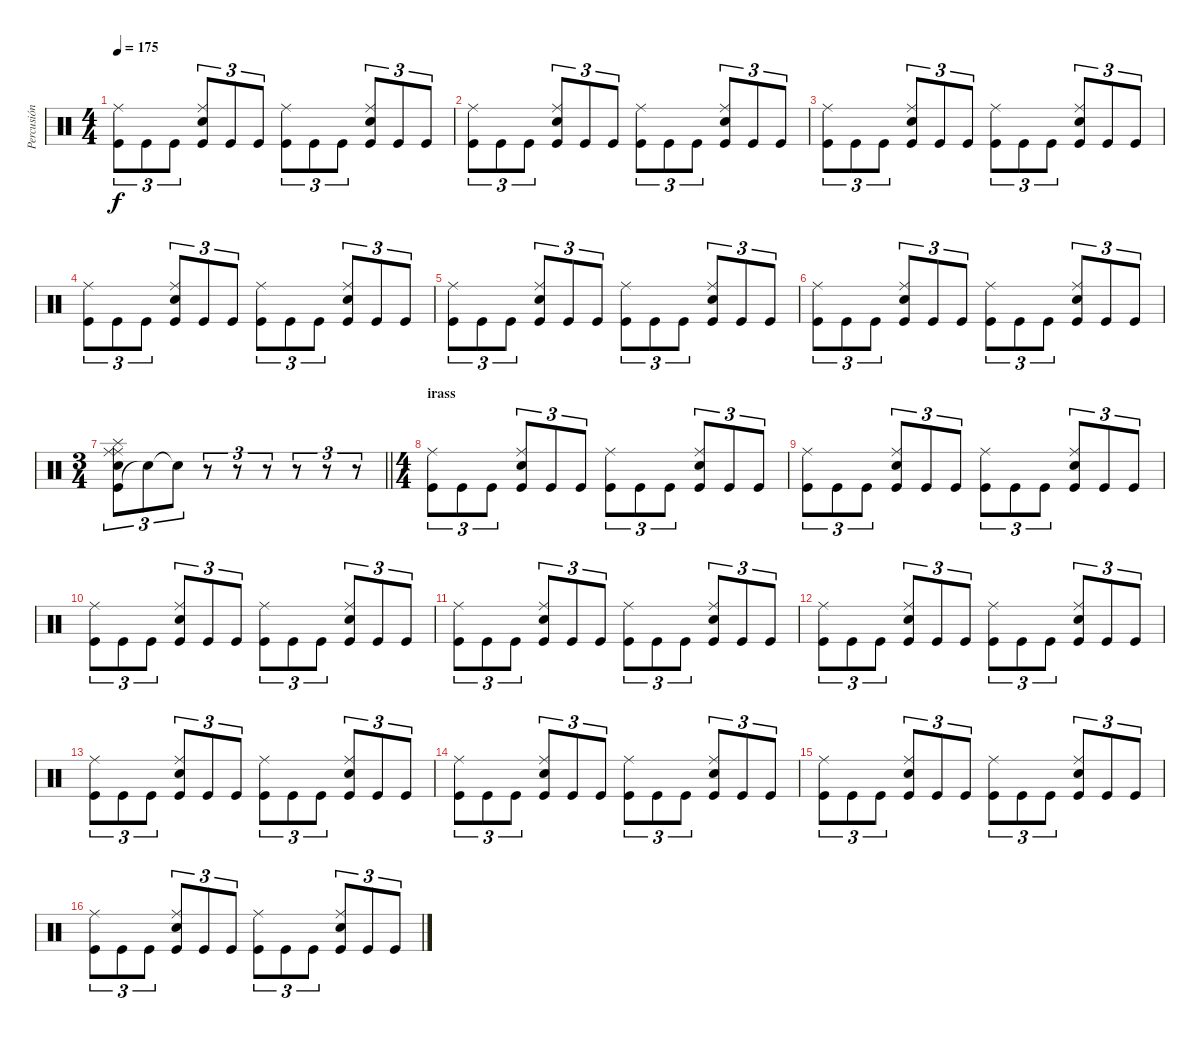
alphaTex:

\track ("Percusión" "Percusión") {instrument percussion}
\staff {score}
\articulation defaults
\ts (4 4)
\tempo 175
\clef neutral
\ks c
("Kick (hit)" "Ride (middle)").8{tu (3 2) dy f} "Kick (hit)".8{tu (3 2)} "Kick (hit)".8{tu (3 2)} ("Kick (hit)" "Electric Snare (hit)" "Ride (middle)").8{tu (3 2)} "Kick (hit)".8{tu (3 2)} "Kick (hit)".8{tu (3 2)} ("Kick (hit)" "Ride (middle)").8{tu (3 2)} "Kick (hit)".8{tu (3 2)} "Kick (hit)".8{tu (3 2)} ("Kick (hit)" "Electric Snare (hit)" "Ride (middle)").8{tu (3 2)} "Kick (hit)".8{tu (3 2)} "Kick (hit)".8{tu (3 2)} |
("Kick (hit)" "Ride (middle)").8{tu (3 2)} "Kick (hit)".8{tu (3 2)} "Kick (hit)".8{tu (3 2)} ("Kick (hit)" "Electric Snare (hit)" "Ride (middle)").8{tu (3 2)} "Kick (hit)".8{tu (3 2)} "Kick (hit)".8{tu (3 2)} ("Kick (hit)" "Ride (middle)").8{tu (3 2)} "Kick (hit)".8{tu (3 2)} "Kick (hit)".8{tu (3 2)} ("Kick (hit)" "Electric Snare (hit)" "Ride (middle)").8{tu (3 2)} "Kick (hit)".8{tu (3 2)} "Kick (hit)".8{tu (3 2)} |
("Kick (hit)" "Ride (middle)").8{tu (3 2)} "Kick (hit)".8{tu (3 2)} "Kick (hit)".8{tu (3 2)} ("Kick (hit)" "Electric Snare (hit)" "Ride (middle)").8{tu (3 2)} "Kick (hit)".8{tu (3 2)} "Kick (hit)".8{tu (3 2)} ("Kick (hit)" "Ride (middle)").8{tu (3 2)} "Kick (hit)".8{tu (3 2)} "Kick (hit)".8{tu (3 2)} ("Kick (hit)" "Electric Snare (hit)" "Ride (middle)").8{tu (3 2)} "Kick (hit)".8{tu (3 2)} "Kick (hit)".8{tu (3 2)} |
("Kick (hit)" "Ride (middle)").8{tu (3 2)} "Kick (hit)".8{tu (3 2)} "Kick (hit)".8{tu (3 2)} ("Kick (hit)" "Electric Snare (hit)" "Ride (middle)").8{tu (3 2)} "Kick (hit)".8{tu (3 2)} "Kick (hit)".8{tu (3 2)} ("Kick (hit)" "Ride (middle)").8{tu (3 2)} "Kick (hit)".8{tu (3 2)} "Kick (hit)".8{tu (3 2)} ("Kick (hit)" "Electric Snare (hit)" "Ride (middle)").8{tu (3 2)} "Kick (hit)".8{tu (3 2)} "Kick (hit)".8{tu (3 2)} |
("Kick (hit)" "Ride (middle)").8{tu (3 2)} "Kick (hit)".8{tu (3 2)} "Kick (hit)".8{tu (3 2)} ("Kick (hit)" "Electric Snare (hit)" "Ride (middle)").8{tu (3 2)} "Kick (hit)".8{tu (3 2)} "Kick (hit)".8{tu (3 2)} ("Kick (hit)" "Ride (middle)").8{tu (3 2)} "Kick (hit)".8{tu (3 2)} "Kick (hit)".8{tu (3 2)} ("Kick (hit)" "Electric Snare (hit)" "Ride (middle)").8{tu (3 2)} "Kick (hit)".8{tu (3 2)} "Kick (hit)".8{tu (3 2)} |
("Kick (hit)" "Ride (middle)").8{tu (3 2)} "Kick (hit)".8{tu (3 2)} "Kick (hit)".8{tu (3 2)} ("Kick (hit)" "Electric Snare (hit)" "Ride (middle)").8{tu (3 2)} "Kick (hit)".8{tu (3 2)} "Kick (hit)".8{tu (3 2)} ("Kick (hit)" "Ride (middle)").8{tu (3 2)} "Kick (hit)".8{tu (3 2)} "Kick (hit)".8{tu (3 2)} ("Kick (hit)" "Electric Snare (hit)" "Ride (middle)").8{tu (3 2)} "Kick (hit)".8{tu (3 2)} "Kick (hit)".8{tu (3 2)} |
\ts (3 4)
\barLineRight lightlight
("Kick (hit)" "Electric Snare (hit)" "Splash (hit)" "Ride (middle)" "Ride (middle)").8{tu (3 2)} "Snare (hit)"{t}.8{tu (3 2)} "Snare (hit)"{t}.8{tu (3 2)} r.8{tu (3 2)} r.8{tu (3 2)} r.8{tu (3 2)} r.8{tu (3 2)} r.8{tu (3 2)} r.8{tu (3 2)} |
\ts (4 4)
\section ("" "irass")
("Kick (hit)" "Ride (middle)").8{tu (3 2)} "Kick (hit)".8{tu (3 2)} "Kick (hit)".8{tu (3 2)} ("Kick (hit)" "Electric Snare (hit)" "Ride (middle)").8{tu (3 2)} "Kick (hit)".8{tu (3 2)} "Kick (hit)".8{tu (3 2)} ("Kick (hit)" "Ride (middle)").8{tu (3 2)} "Kick (hit)".8{tu (3 2)} "Kick (hit)".8{tu (3 2)} ("Kick (hit)" "Electric Snare (hit)" "Ride (middle)").8{tu (3 2)} "Kick (hit)".8{tu (3 2)} "Kick (hit)".8{tu (3 2)} |
("Kick (hit)" "Ride (middle)").8{tu (3 2)} "Kick (hit)".8{tu (3 2)} "Kick (hit)".8{tu (3 2)} ("Kick (hit)" "Electric Snare (hit)" "Ride (middle)").8{tu (3 2)} "Kick (hit)".8{tu (3 2)} "Kick (hit)".8{tu (3 2)} ("Kick (hit)" "Ride (middle)").8{tu (3 2)} "Kick (hit)".8{tu (3 2)} "Kick (hit)".8{tu (3 2)} ("Kick (hit)" "Electric Snare (hit)" "Ride (middle)").8{tu (3 2)} "Kick (hit)".8{tu (3 2)} "Kick (hit)".8{tu (3 2)} |
("Kick (hit)" "Ride (middle)").8{tu (3 2)} "Kick (hit)".8{tu (3 2)} "Kick (hit)".8{tu (3 2)} ("Kick (hit)" "Electric Snare (hit)" "Ride (middle)").8{tu (3 2)} "Kick (hit)".8{tu (3 2)} "Kick (hit)".8{tu (3 2)} ("Kick (hit)" "Ride (middle)").8{tu (3 2)} "Kick (hit)".8{tu (3 2)} "Kick (hit)".8{tu (3 2)} ("Kick (hit)" "Electric Snare (hit)" "Ride (middle)").8{tu (3 2)} "Kick (hit)".8{tu (3 2)} "Kick (hit)".8{tu (3 2)} |
("Kick (hit)" "Ride (middle)").8{tu (3 2)} "Kick (hit)".8{tu (3 2)} "Kick (hit)".8{tu (3 2)} ("Kick (hit)" "Electric Snare (hit)" "Ride (middle)").8{tu (3 2)} "Kick (hit)".8{tu (3 2)} "Kick (hit)".8{tu (3 2)} ("Kick (hit)" "Ride (middle)").8{tu (3 2)} "Kick (hit)".8{tu (3 2)} "Kick (hit)".8{tu (3 2)} ("Kick (hit)" "Electric Snare (hit)" "Ride (middle)").8{tu (3 2)} "Kick (hit)".8{tu (3 2)} "Kick (hit)".8{tu (3 2)} |
("Kick (hit)" "Ride (middle)").8{tu (3 2)} "Kick (hit)".8{tu (3 2)} "Kick (hit)".8{tu (3 2)} ("Kick (hit)" "Electric Snare (hit)" "Ride (middle)").8{tu (3 2)} "Kick (hit)".8{tu (3 2)} "Kick (hit)".8{tu (3 2)} ("Kick (hit)" "Ride (middle)").8{tu (3 2)} "Kick (hit)".8{tu (3 2)} "Kick (hit)".8{tu (3 2)} ("Kick (hit)" "Electric Snare (hit)" "Ride (middle)").8{tu (3 2)} "Kick (hit)".8{tu (3 2)} "Kick (hit)".8{tu (3 2)} |
("Kick (hit)" "Ride (middle)").8{tu (3 2)} "Kick (hit)".8{tu (3 2)} "Kick (hit)".8{tu (3 2)} ("Kick (hit)" "Electric Snare (hit)" "Ride (middle)").8{tu (3 2)} "Kick (hit)".8{tu (3 2)} "Kick (hit)".8{tu (3 2)} ("Kick (hit)" "Ride (middle)").8{tu (3 2)} "Kick (hit)".8{tu (3 2)} "Kick (hit)".8{tu (3 2)} ("Kick (hit)" "Electric Snare (hit)" "Ride (middle)").8{tu (3 2)} "Kick (hit)".8{tu (3 2)} "Kick (hit)".8{tu (3 2)} |
("Kick (hit)" "Ride (middle)").8{tu (3 2)} "Kick (hit)".8{tu (3 2)} "Kick (hit)".8{tu (3 2)} ("Kick (hit)" "Electric Snare (hit)" "Ride (middle)").8{tu (3 2)} "Kick (hit)".8{tu (3 2)} "Kick (hit)".8{tu (3 2)} ("Kick (hit)" "Ride (middle)").8{tu (3 2)} "Kick (hit)".8{tu (3 2)} "Kick (hit)".8{tu (3 2)} ("Kick (hit)" "Electric Snare (hit)" "Ride (middle)").8{tu (3 2)} "Kick (hit)".8{tu (3 2)} "Kick (hit)".8{tu (3 2)} |
("Kick (hit)" "Ride (middle)").8{tu (3 2)} "Kick (hit)".8{tu (3 2)} "Kick (hit)".8{tu (3 2)} ("Kick (hit)" "Electric Snare (hit)" "Ride (middle)").8{tu (3 2)} "Kick (hit)".8{tu (3 2)} "Kick (hit)".8{tu (3 2)} ("Kick (hit)" "Ride (middle)").8{tu (3 2)} "Kick (hit)".8{tu (3 2)} "Kick (hit)".8{tu (3 2)} ("Kick (hit)" "Electric Snare (hit)" "Ride (middle)").8{tu (3 2)} "Kick (hit)".8{tu (3 2)} "Kick (hit)".8{tu (3 2)} |
("Kick (hit)" "Ride (middle)").8{tu (3 2)} "Kick (hit)".8{tu (3 2)} "Kick (hit)".8{tu (3 2)} ("Kick (hit)" "Electric Snare (hit)" "Ride (middle)").8{tu (3 2)} "Kick (hit)".8{tu (3 2)} "Kick (hit)".8{tu (3 2)} ("Kick (hit)" "Ride (middle)").8{tu (3 2)} "Kick (hit)".8{tu (3 2)} "Kick (hit)".8{tu (3 2)} ("Kick (hit)" "Electric Snare (hit)" "Ride (middle)").8{tu (3 2)} "Kick (hit)".8{tu (3 2)} "Kick (hit)".8{tu (3 2)}
